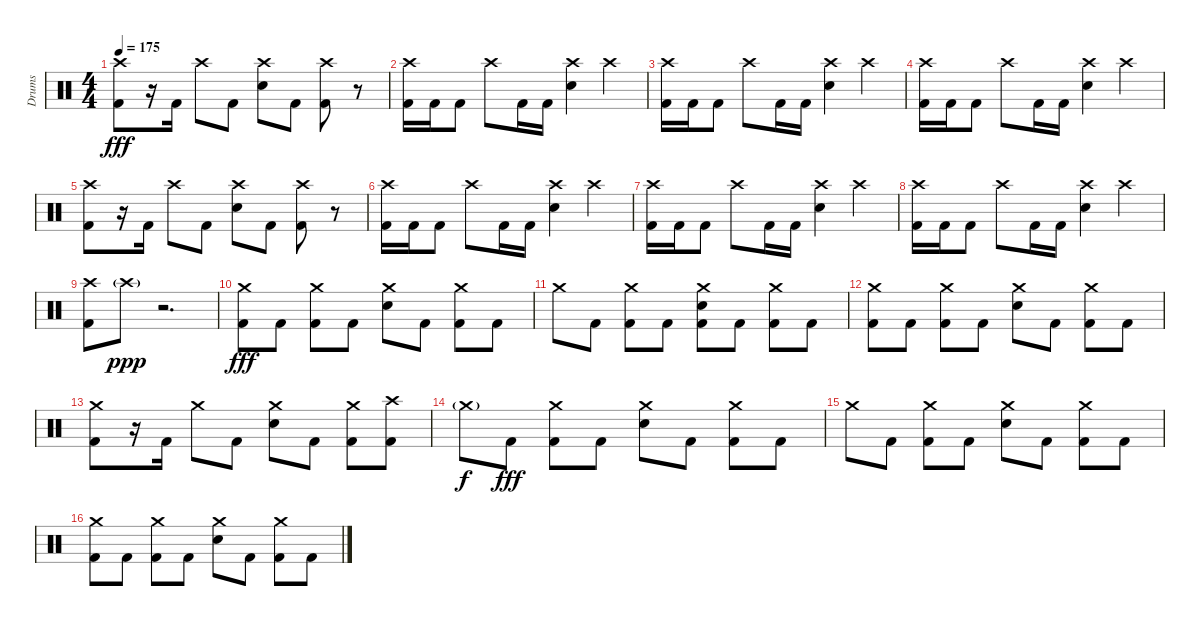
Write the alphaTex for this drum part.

\track ("Drums" "Drums") {instrument percussion}
\staff {score}
\articulation defaults
\ts (4 4)
\tempo 175
\clef neutral
\ks c
("Crash high (hit)" "Kick (hit) 2").8{dy fff} r.16 "Kick (hit) 2".16 "Crash high (hit)".8 "Kick (hit) 2".8 ("Crash high (hit)" "Snare (hit) 2").8 "Kick (hit) 2".8 ("Crash high (hit)" "Kick (hit) 2").8 r.8 |
("Crash high (hit)" "Kick (hit) 2").16 "Kick (hit) 2".16 "Kick (hit) 2".8 "Crash high (hit)".8 "Kick (hit) 2".16 "Kick (hit) 2".16 ("Crash high (hit)" "Snare (hit) 2").4 "Crash high (hit)".4 |
("Crash high (hit)" "Kick (hit) 2").16 "Kick (hit) 2".16 "Kick (hit) 2".8 "Crash high (hit)".8 "Kick (hit) 2".16 "Kick (hit) 2".16 ("Crash high (hit)" "Snare (hit) 2").4 "Crash high (hit)".4 |
("Crash high (hit)" "Kick (hit) 2").16 "Kick (hit) 2".16 "Kick (hit) 2".8 "Crash high (hit)".8 "Kick (hit) 2".16 "Kick (hit) 2".16 ("Crash high (hit)" "Snare (hit) 2").4 "Crash high (hit)".4 |
("Crash high (hit)" "Kick (hit) 2").8 r.16 "Kick (hit) 2".16 "Crash high (hit)".8 "Kick (hit) 2".8 ("Crash high (hit)" "Snare (hit) 2").8 "Kick (hit) 2".8 ("Crash high (hit)" "Kick (hit) 2").8 r.8 |
("Crash high (hit)" "Kick (hit) 2").16 "Kick (hit) 2".16 "Kick (hit) 2".8 "Crash high (hit)".8 "Kick (hit) 2".16 "Kick (hit) 2".16 ("Crash high (hit)" "Snare (hit) 2").4 "Crash high (hit)".4 |
("Crash high (hit)" "Kick (hit) 2").16 "Kick (hit) 2".16 "Kick (hit) 2".8 "Crash high (hit)".8 "Kick (hit) 2".16 "Kick (hit) 2".16 ("Crash high (hit)" "Snare (hit) 2").4 "Crash high (hit)".4 |
("Crash high (hit)" "Kick (hit) 2").16 "Kick (hit) 2".16 "Kick (hit) 2".8 "Crash high (hit)".8 "Kick (hit) 2".16 "Kick (hit) 2".16 ("Crash high (hit)" "Snare (hit) 2").4 "Crash high (hit)".4 |
("Crash high (hit)" "Kick (hit) 2").8 "Crash high (hit)"{g}.8{dy ppp} r.2{d} |
("Crash medium (hit)" "Kick (hit) 2").8{dy fff} "Kick (hit) 2".8 ("Crash medium (hit)" "Kick (hit) 2").8 "Kick (hit) 2".8 ("Crash medium (hit)" "Snare (hit) 2").8 "Kick (hit) 2".8 ("Crash medium (hit)" "Kick (hit) 2").8 "Kick (hit) 2".8 |
"Crash medium (hit)".8 "Kick (hit) 2".8 ("Crash medium (hit)" "Kick (hit) 2").8 "Kick (hit) 2".8 ("Crash medium (hit)" "Snare (hit) 2" "Kick (hit) 2").8 "Kick (hit) 2".8 ("Crash medium (hit)" "Kick (hit) 2").8 "Kick (hit) 2".8 |
("Crash medium (hit)" "Kick (hit) 2").8 "Kick (hit) 2".8 ("Crash medium (hit)" "Kick (hit) 2").8 "Kick (hit) 2".8 ("Crash medium (hit)" "Snare (hit) 2").8 "Kick (hit) 2".8 ("Crash medium (hit)" "Kick (hit) 2").8 "Kick (hit) 2".8 |
("Crash medium (hit)" "Kick (hit) 2").8 r.16 "Kick (hit) 2".16 "Crash medium (hit)".8 "Kick (hit) 2".8 ("Crash medium (hit)" "Snare (hit) 2").8 "Kick (hit) 2".8 ("Crash medium (hit)" "Kick (hit) 2").8 ("Crash high (hit)" "Kick (hit) 2").8 |
"Crash medium (hit)"{g}.8{dy f} "Kick (hit) 2".8{dy fff} ("Crash medium (hit)" "Kick (hit) 2").8 "Kick (hit) 2".8 ("Crash medium (hit)" "Snare (hit) 2").8 "Kick (hit) 2".8 ("Crash medium (hit)" "Kick (hit) 2").8 "Kick (hit) 2".8 |
"Crash medium (hit)".8 "Kick (hit) 2".8 ("Crash medium (hit)" "Kick (hit) 2").8 "Kick (hit) 2".8 ("Crash medium (hit)" "Snare (hit) 2").8 "Kick (hit) 2".8 ("Crash medium (hit)" "Kick (hit) 2").8 "Kick (hit) 2".8 |
("Crash medium (hit)" "Kick (hit) 2").8 "Kick (hit) 2".8 ("Crash medium (hit)" "Kick (hit) 2").8 "Kick (hit) 2".8 ("Crash medium (hit)" "Snare (hit) 2").8 "Kick (hit) 2".8 ("Crash medium (hit)" "Kick (hit) 2").8 "Kick (hit) 2".8
